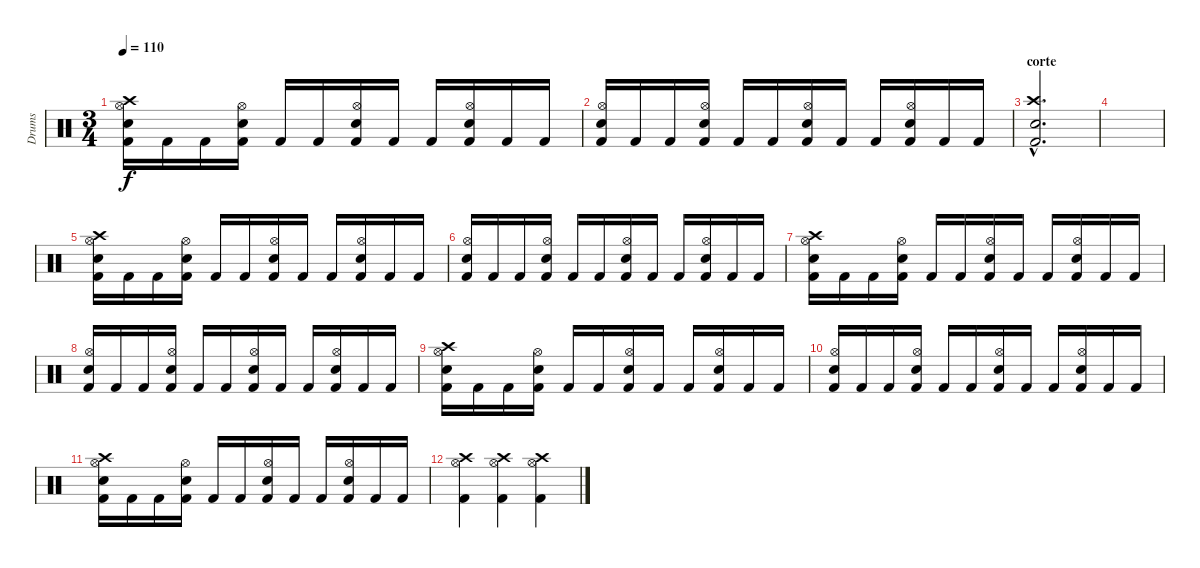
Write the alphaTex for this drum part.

\track ("Drums" "Drums") {instrument percussion}
\staff {score}
\articulation defaults
\ts (3 4)
\tempo 110
\clef neutral
\ks c
("Kick (hit) 2" "Hi-Hat (open)" "Electric Snare (hit)" "Crash high (hit)").16{dy f} "Kick (hit) 2".16 "Kick (hit) 2".16 ("Kick (hit) 2" "Electric Snare (hit)" "Hi-Hat (open)").16 "Kick (hit) 2".16 "Kick (hit) 2".16 ("Kick (hit) 2" "Hi-Hat (open)" "Electric Snare (hit)").16 "Kick (hit) 2".16 "Kick (hit) 2".16 ("Kick (hit) 2" "Electric Snare (hit)" "Hi-Hat (open)").16 "Kick (hit) 2".16 "Kick (hit) 2".16 |
("Kick (hit) 2" "Hi-Hat (open)" "Electric Snare (hit)").16 "Kick (hit) 2".16 "Kick (hit) 2".16 ("Kick (hit) 2" "Electric Snare (hit)" "Hi-Hat (open)").16 "Kick (hit) 2".16 "Kick (hit) 2".16 ("Kick (hit) 2" "Hi-Hat (open)" "Electric Snare (hit)").16 "Kick (hit) 2".16 "Kick (hit) 2".16 ("Kick (hit) 2" "Electric Snare (hit)" "Hi-Hat (open)").16 "Kick (hit) 2".16 "Kick (hit) 2".16 |
\section ("" "corte")
("Kick (hit) 2"{hac} "Snare (hit)"{hac} "Crash high (hit)"{hac}).2{d} |
|
("Kick (hit) 2" "Hi-Hat (open)" "Electric Snare (hit)" "Crash high (hit)").16 "Kick (hit) 2".16 "Kick (hit) 2".16 ("Kick (hit) 2" "Electric Snare (hit)" "Hi-Hat (open)").16 "Kick (hit) 2".16 "Kick (hit) 2".16 ("Kick (hit) 2" "Hi-Hat (open)" "Electric Snare (hit)").16 "Kick (hit) 2".16 "Kick (hit) 2".16 ("Kick (hit) 2" "Electric Snare (hit)" "Hi-Hat (open)").16 "Kick (hit) 2".16 "Kick (hit) 2".16 |
("Kick (hit) 2" "Hi-Hat (open)" "Electric Snare (hit)").16 "Kick (hit) 2".16 "Kick (hit) 2".16 ("Kick (hit) 2" "Electric Snare (hit)" "Hi-Hat (open)").16 "Kick (hit) 2".16 "Kick (hit) 2".16 ("Kick (hit) 2" "Hi-Hat (open)" "Electric Snare (hit)").16 "Kick (hit) 2".16 "Kick (hit) 2".16 ("Kick (hit) 2" "Electric Snare (hit)" "Hi-Hat (open)").16 "Kick (hit) 2".16 "Kick (hit) 2".16 |
("Kick (hit) 2" "Hi-Hat (open)" "Electric Snare (hit)" "Crash high (hit)").16 "Kick (hit) 2".16 "Kick (hit) 2".16 ("Kick (hit) 2" "Electric Snare (hit)" "Hi-Hat (open)").16 "Kick (hit) 2".16 "Kick (hit) 2".16 ("Kick (hit) 2" "Hi-Hat (open)" "Electric Snare (hit)").16 "Kick (hit) 2".16 "Kick (hit) 2".16 ("Kick (hit) 2" "Electric Snare (hit)" "Hi-Hat (open)").16 "Kick (hit) 2".16 "Kick (hit) 2".16 |
("Kick (hit) 2" "Hi-Hat (open)" "Electric Snare (hit)").16 "Kick (hit) 2".16 "Kick (hit) 2".16 ("Kick (hit) 2" "Electric Snare (hit)" "Hi-Hat (open)").16 "Kick (hit) 2".16 "Kick (hit) 2".16 ("Kick (hit) 2" "Hi-Hat (open)" "Electric Snare (hit)").16 "Kick (hit) 2".16 "Kick (hit) 2".16 ("Kick (hit) 2" "Electric Snare (hit)" "Hi-Hat (open)").16 "Kick (hit) 2".16 "Kick (hit) 2".16 |
("Kick (hit) 2" "Hi-Hat (open)" "Electric Snare (hit)" "Crash high (hit)").16 "Kick (hit) 2".16 "Kick (hit) 2".16 ("Kick (hit) 2" "Electric Snare (hit)" "Hi-Hat (open)").16 "Kick (hit) 2".16 "Kick (hit) 2".16 ("Kick (hit) 2" "Hi-Hat (open)" "Electric Snare (hit)").16 "Kick (hit) 2".16 "Kick (hit) 2".16 ("Kick (hit) 2" "Electric Snare (hit)" "Hi-Hat (open)").16 "Kick (hit) 2".16 "Kick (hit) 2".16 |
("Kick (hit) 2" "Hi-Hat (open)" "Electric Snare (hit)").16 "Kick (hit) 2".16 "Kick (hit) 2".16 ("Kick (hit) 2" "Electric Snare (hit)" "Hi-Hat (open)").16 "Kick (hit) 2".16 "Kick (hit) 2".16 ("Kick (hit) 2" "Hi-Hat (open)" "Electric Snare (hit)").16 "Kick (hit) 2".16 "Kick (hit) 2".16 ("Kick (hit) 2" "Electric Snare (hit)" "Hi-Hat (open)").16 "Kick (hit) 2".16 "Kick (hit) 2".16 |
("Kick (hit) 2" "Hi-Hat (open)" "Electric Snare (hit)" "Crash high (hit)").16 "Kick (hit) 2".16 "Kick (hit) 2".16 ("Kick (hit) 2" "Electric Snare (hit)" "Hi-Hat (open)").16 "Kick (hit) 2".16 "Kick (hit) 2".16 ("Kick (hit) 2" "Hi-Hat (open)" "Electric Snare (hit)").16 "Kick (hit) 2".16 "Kick (hit) 2".16 ("Kick (hit) 2" "Electric Snare (hit)" "Hi-Hat (open)").16 "Kick (hit) 2".16 "Kick (hit) 2".16 |
("Kick (hit) 2" "Hi-Hat (open)" "Crash high (hit)").4 ("Kick (hit) 2" "Hi-Hat (open)" "Crash high (hit)").4 ("Kick (hit) 2" "Hi-Hat (open)" "Crash high (hit)").4
